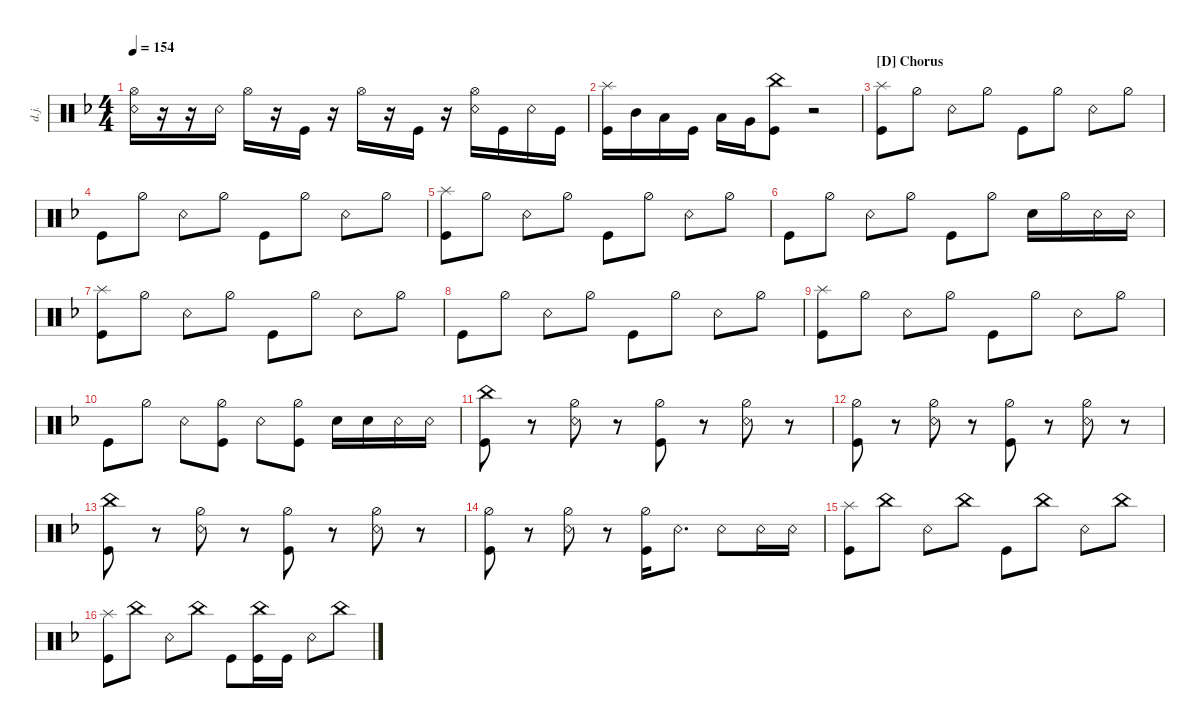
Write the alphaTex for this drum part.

\defaultSystemsLayout 4
\hideDynamics
\bracketExtendMode nobrackets
\otherSystemsTrackNameOrientation horizontal
\track ("Drumkit Jason" "d.j.") {instrument percussion}
\staff {score}
\articulation defaults
\ts (4 4)
\tempo 154
\clef neutral
\ks dminor
("Hi-Hat (open)" "Snare (rim shot)").16{dy ff} r.16 r.16 "Snare (rim shot)".16 "Hi-Hat (open)".16 r.16 "Kick (hit)".16 r.16 "Hi-Hat (open)".16 r.16 "Kick (hit)".16 r.16 ("Hi-Hat (open)" "Snare (rim shot)").16 "Kick (hit)".16 "Snare (rim shot)".16 "Kick (hit)".16 |
("Splash (hit)" "Kick (hit)").16 "Mid Tom (hit)".16 "Low Tom (hit)".16 "Kick (hit)".16 "Low Tom (hit)".16 "Very Low Tom (hit)".16 ("China (hit)" "Kick (hit)").8 r.2 |
\section ("D" "Chorus")
("Kick (hit)" "Splash (hit)").8 "Hi-Hat (half)".8 "Snare (rim shot)".8 "Hi-Hat (half)".8 "Kick (hit)".8 "Hi-Hat (half)".8 "Snare (rim shot)".8 "Hi-Hat (half)".8 |
"Kick (hit)".8 "Hi-Hat (half)".8 "Snare (rim shot)".8 "Hi-Hat (half)".8 "Kick (hit)".8 "Hi-Hat (half)".8 "Snare (rim shot)".8 "Hi-Hat (half)".8 |
("Kick (hit)" "Splash (hit)").8 "Hi-Hat (half)".8 "Snare (rim shot)".8 "Hi-Hat (half)".8 "Kick (hit)".8 "Hi-Hat (half)".8 "Snare (rim shot)".8 "Hi-Hat (half)".8 |
"Kick (hit)".8 "Hi-Hat (half)".8 "Snare (rim shot)".8 "Hi-Hat (half)".8 "Kick (hit)".8 "Hi-Hat (half)".8 "Snare (hit) 2".16 "Hi-Hat (half)".16 "Snare (rim shot)".16 "Snare (rim shot)".16 |
("Kick (hit)" "Splash (hit)").8 "Hi-Hat (half)".8 "Snare (rim shot)".8 "Hi-Hat (half)".8 "Kick (hit)".8 "Hi-Hat (half)".8 "Snare (rim shot)".8 "Hi-Hat (half)".8 |
"Kick (hit)".8 "Hi-Hat (half)".8 "Snare (rim shot)".8 "Hi-Hat (half)".8 "Kick (hit)".8 "Hi-Hat (half)".8 "Snare (rim shot)".8 "Hi-Hat (half)".8 |
("Kick (hit)" "Splash (hit)").8 "Hi-Hat (half)".8 "Snare (rim shot)".8 "Hi-Hat (half)".8 "Kick (hit)".8 "Hi-Hat (half)".8 "Snare (rim shot)".8 "Hi-Hat (half)".8 |
"Kick (hit)".8 "Hi-Hat (half)".8 "Snare (rim shot)".8 ("Hi-Hat (half)" "Kick (hit)").8 "Snare (rim shot)".8 ("Hi-Hat (half)" "Kick (hit)").8 "Snare (hit) 2".16 "Snare (hit) 2".16 "Snare (rim shot)".16 "Snare (rim shot)".16 |
("China (hit)" "Kick (hit)").8 r.8 ("Hi-Hat (half)" "Snare (rim shot)").8 r.8 ("Hi-Hat (half)" "Kick (hit)").8 r.8 ("Hi-Hat (half)" "Snare (rim shot)").8 r.8 |
("Hi-Hat (half)" "Kick (hit)").8 r.8 ("Hi-Hat (half)" "Snare (rim shot)").8 r.8 ("Hi-Hat (half)" "Kick (hit)").8 r.8 ("Hi-Hat (half)" "Snare (rim shot)").8 r.8 |
("China (hit)" "Kick (hit)").8 r.8 ("Hi-Hat (half)" "Snare (rim shot)").8 r.8 ("Hi-Hat (half)" "Kick (hit)").8 r.8 ("Hi-Hat (half)" "Snare (rim shot)").8 r.8 |
("Hi-Hat (half)" "Kick (hit)").8 r.8 ("Hi-Hat (half)" "Snare (rim shot)").8 r.8 ("Hi-Hat (half)" "Kick (hit)").16 "Snare (rim shot)".8{d} "Snare (rim shot)".8 "Snare (rim shot)".16 "Snare (rim shot)".16 |
("Splash (hit)" "Kick (hit)").8 "China (hit)".8 "Snare (rim shot)".8 "China (hit)".8 "Kick (hit)".8 "China (hit)".8 "Snare (rim shot)".8 "China (hit)".8 |
("Splash (hit)" "Kick (hit)").8 "China (hit)".8 "Snare (rim shot)".8 "China (hit)".8 "Kick (hit)".8 ("China (hit)" "Kick (hit)").16 "Kick (hit)".16 "Snare (rim shot)".8 "China (hit)".8
